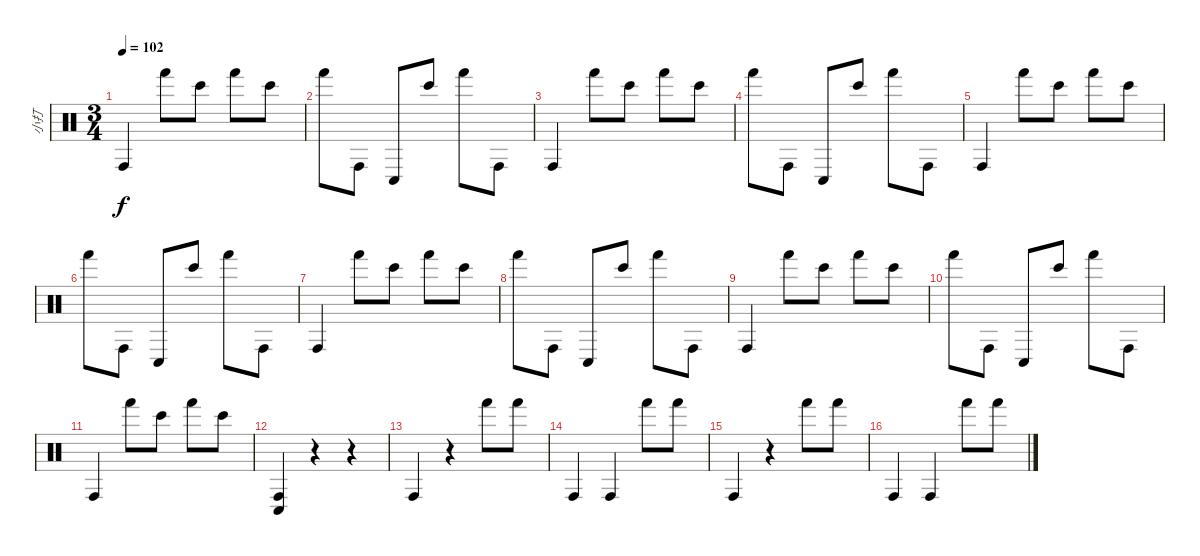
\track ("小打" "小打") {instrument percussion}
\staff {score}
\articulation defaults
\ts (3 4)
\tempo 102
\clef neutral
\ks c "Conga high (hit)".4{dy f} "Hand (hit)".8 "Bongo High (hit)".8 "Hand (hit)".8 "Bongo High (hit)".8
|
"Hand (hit)".8 "Conga high (hit)".8 "Conga low (hit)".8 "Bongo High (hit)".8 "Hand (hit)".8 "Conga high (hit)".8 |
"Conga high (hit)".4 "Hand (hit)".8 "Bongo High (hit)".8 "Hand (hit)".8 "Bongo High (hit)".8 |
"Hand (hit)".8 "Conga high (hit)".8 "Conga low (hit)".8 "Bongo High (hit)".8 "Hand (hit)".8 "Conga high (hit)".8 |
"Conga high (hit)".4 "Hand (hit)".8 "Bongo High (hit)".8 "Hand (hit)".8 "Bongo High (hit)".8 |
"Hand (hit)".8 "Conga high (hit)".8 "Conga low (hit)".8 "Bongo High (hit)".8 "Hand (hit)".8 "Conga high (hit)".8 |
"Conga high (hit)".4 "Hand (hit)".8 "Bongo High (hit)".8 "Hand (hit)".8 "Bongo High (hit)".8 |
"Hand (hit)".8 "Conga high (hit)".8 "Conga low (hit)".8 "Bongo High (hit)".8 "Hand (hit)".8 "Conga high (hit)".8 |
"Conga high (hit)".4 "Hand (hit)".8 "Bongo High (hit)".8 "Hand (hit)".8 "Bongo High (hit)".8 |
"Hand (hit)".8 "Conga high (hit)".8 "Conga low (hit)".8 "Bongo High (hit)".8 "Hand (hit)".8 "Conga high (hit)".8 |
"Conga high (hit)".4 "Hand (hit)".8 "Bongo High (hit)".8 "Hand (hit)".8 "Bongo High (hit)".8 |
("Conga high (hit)" "Conga low (hit)").4 r.4 r.4 |
"Conga high (hit)".4 r.4 "Hand (hit)".8 "Hand (hit)".8 |
"Conga high (hit)".4 "Conga high (hit)".4 "Hand (hit)".8 "Hand (hit)".8 |
"Conga high (hit)".4 r.4 "Hand (hit)".8 "Hand (hit)".8 |
"Conga high (hit)".4 "Conga high (hit)".4 "Hand (hit)".8 "Hand (hit)".8
